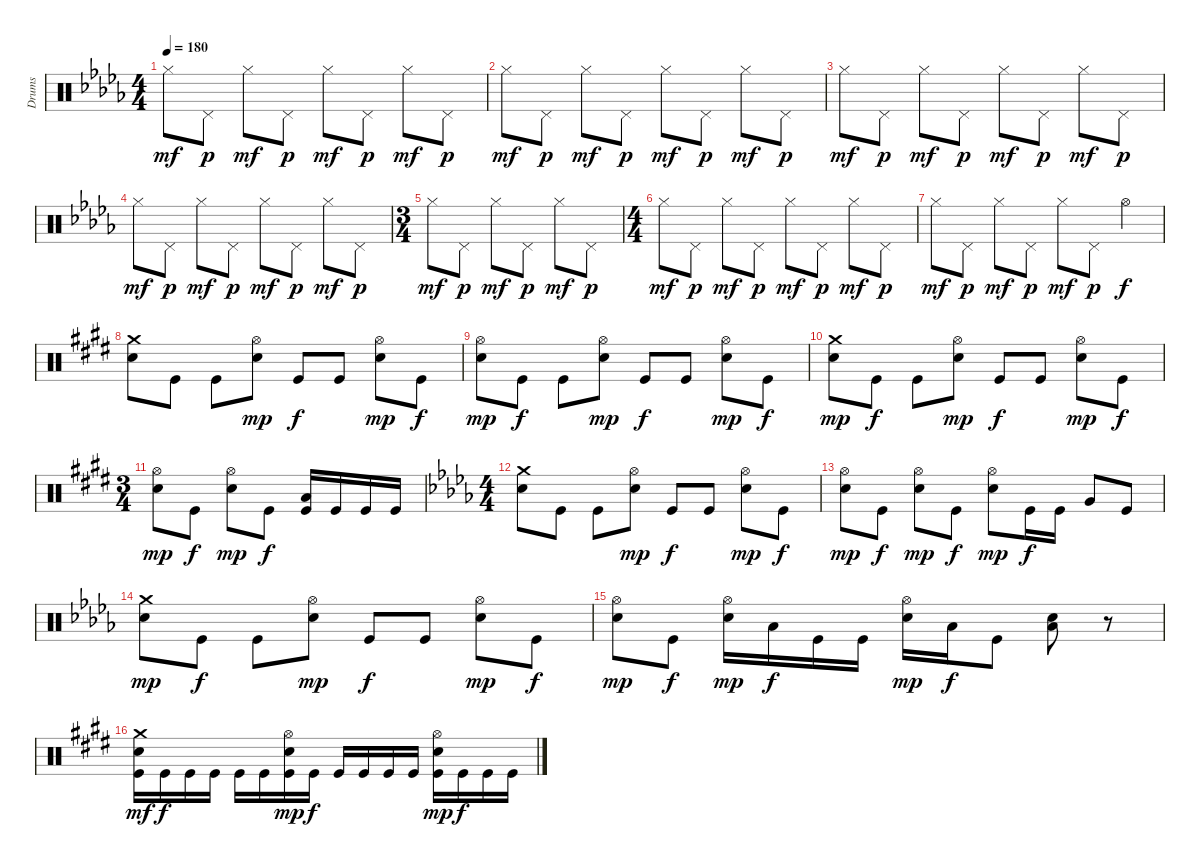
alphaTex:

\track ("Drums" "Drums") {instrument percussion}
\staff {score}
\articulation defaults
\ts (4 4)
\tempo 180
\clef neutral
\ks bbminor "Hi-Hat (closed)".8{dy mf} "Pedal Hi-Hat (hit)".8{dy p} "Hi-Hat (closed)".8{dy mf} "Pedal Hi-Hat (hit)".8{dy p} "Hi-Hat (closed)".8{dy mf} "Pedal Hi-Hat (hit)".8{dy p} "Hi-Hat (closed)".8{dy mf} "Pedal Hi-Hat (hit)".8{dy p}
|
"Hi-Hat (closed)".8{dy mf} "Pedal Hi-Hat (hit)".8{dy p} "Hi-Hat (closed)".8{dy mf} "Pedal Hi-Hat (hit)".8{dy p} "Hi-Hat (closed)".8{dy mf} "Pedal Hi-Hat (hit)".8{dy p} "Hi-Hat (closed)".8{dy mf} "Pedal Hi-Hat (hit)".8{dy p} |
"Hi-Hat (closed)".8{dy mf} "Pedal Hi-Hat (hit)".8{dy p} "Hi-Hat (closed)".8{dy mf} "Pedal Hi-Hat (hit)".8{dy p} "Hi-Hat (closed)".8{dy mf} "Pedal Hi-Hat (hit)".8{dy p} "Hi-Hat (closed)".8{dy mf} "Pedal Hi-Hat (hit)".8{dy p} |
"Hi-Hat (closed)".8{dy mf} "Pedal Hi-Hat (hit)".8{dy p} "Hi-Hat (closed)".8{dy mf} "Pedal Hi-Hat (hit)".8{dy p} "Hi-Hat (closed)".8{dy mf} "Pedal Hi-Hat (hit)".8{dy p} "Hi-Hat (closed)".8{dy mf} "Pedal Hi-Hat (hit)".8{dy p} |
\ts (3 4)
"Hi-Hat (closed)".8{dy mf} "Pedal Hi-Hat (hit)".8{dy p} "Hi-Hat (closed)".8{dy mf} "Pedal Hi-Hat (hit)".8{dy p} "Hi-Hat (closed)".8{dy mf} "Pedal Hi-Hat (hit)".8{dy p} |
\ts (4 4)
"Hi-Hat (closed)".8{dy mf} "Pedal Hi-Hat (hit)".8{dy p} "Hi-Hat (closed)".8{dy mf} "Pedal Hi-Hat (hit)".8{dy p} "Hi-Hat (closed)".8{dy mf} "Pedal Hi-Hat (hit)".8{dy p} "Hi-Hat (closed)".8{dy mf} "Pedal Hi-Hat (hit)".8{dy p} |
"Hi-Hat (closed)".8{dy mf} "Pedal Hi-Hat (hit)".8{dy p} "Hi-Hat (closed)".8{dy mf} "Pedal Hi-Hat (hit)".8{dy p} "Hi-Hat (closed)".8{dy mf} "Pedal Hi-Hat (hit)".8{dy p} "Hi-Hat (open)".4{dy f volume 16} |
\ks c#minor
("Crash medium (hit)" "Snare (hit) 2").8 "Kick (hit)".8 "Kick (hit)".8 ("Hi-Hat (open)" "Snare (hit) 2").8{dy mp} "Kick (hit)".8{dy f} "Kick (hit)".8 ("Hi-Hat (open)" "Snare (hit) 2").8{dy mp} "Kick (hit)".8{dy f} |
("Hi-Hat (open)" "Snare (hit) 2").8{dy mp} "Kick (hit)".8{dy f} "Kick (hit)".8 ("Hi-Hat (open)" "Snare (hit) 2").8{dy mp} "Kick (hit)".8{dy f} "Kick (hit)".8 ("Hi-Hat (open)" "Snare (hit) 2").8{dy mp} "Kick (hit)".8{dy f} |
("Crash medium (hit)" "Snare (hit) 2").8{dy mp} "Kick (hit)".8{dy f} "Kick (hit)".8 ("Hi-Hat (open)" "Snare (hit) 2").8{dy mp} "Kick (hit)".8{dy f} "Kick (hit)".8 ("Hi-Hat (open)" "Snare (hit) 2").8{dy mp} "Kick (hit)".8{dy f} |
\ts (3 4)
("Hi-Hat (open)" "Snare (hit) 2").8{dy mp} "Kick (hit)".8{dy f} ("Hi-Hat (open)" "Snare (hit) 2").8{dy mp} "Kick (hit)".8{dy f} ("Low Floor Tom (hit)" "Kick (hit)").16 "Kick (hit)".16 "Kick (hit)".16 "Kick (hit)".16 |
\ts (4 4)
\ks bbminor
("Crash medium (hit)" "Snare (hit) 2").8 "Kick (hit)".8 "Kick (hit)".8 ("Hi-Hat (open)" "Snare (hit) 2").8{dy mp} "Kick (hit)".8{dy f} "Kick (hit)".8 ("Hi-Hat (open)" "Snare (hit) 2").8{dy mp} "Kick (hit)".8{dy f} |
("Hi-Hat (open)" "Snare (hit) 2").8{dy mp} "Kick (hit)".8{dy f} ("Hi-Hat (open)" "Snare (hit) 2").8{dy mp} "Kick (hit)".8{dy f} ("Hi-Hat (open)" "Snare (hit) 2").8{dy mp} "Kick (hit)".16{dy f} "Kick (hit)".16 "Very Low Tom (hit)".8 "Kick (hit)".8 |
("Crash medium (hit)" "Snare (hit) 2").8{dy mp} "Kick (hit)".8{dy f} "Kick (hit)".8 ("Hi-Hat (open)" "Snare (hit) 2").8{dy mp} "Kick (hit)".8{dy f} "Kick (hit)".8 ("Hi-Hat (open)" "Snare (hit) 2").8{dy mp} "Kick (hit)".8{dy f} |
("Hi-Hat (open)" "Snare (hit) 2").8{dy mp} "Kick (hit)".8{dy f} ("Hi-Hat (open)" "Snare (hit) 2").16{dy mp} "Low Floor Tom (hit)".16{dy f} "Kick (hit)".16 "Kick (hit)".16 ("Hi-Hat (open)" "Snare (hit) 2").16{dy mp} "Low Floor Tom (hit)".16{dy f} "Kick (hit)".8 ("Low Floor Tom (hit)" "Snare (hit) 2").8 r.8 |
\ks c#minor
("Crash medium (hit)" "Snare (hit) 2" "Kick (hit)").16{dy mf} "Kick (hit)".16{dy f} "Kick (hit)".16 "Kick (hit)".16 "Kick (hit)".16 "Kick (hit)".16 ("Hi-Hat (open)" "Snare (hit) 2" "Kick (hit)").16{dy mp} "Kick (hit)".16{dy f} "Kick (hit)".16 "Kick (hit)".16 "Kick (hit)".16 "Kick (hit)".16 ("Hi-Hat (open)" "Snare (hit) 2" "Kick (hit)").16{dy mp} "Kick (hit)".16{dy f} "Kick (hit)".16 "Kick (hit)".16
